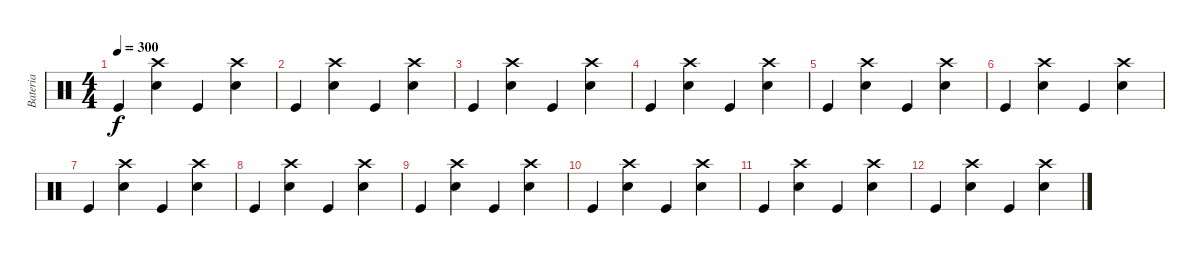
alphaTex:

\track ("Bateria" "Bateria") {instrument percussion}
\staff {score}
\articulation defaults
\ts (4 4)
\tempo 300
\clef neutral
\ks c "Kick (hit)".4{dy f}
("Electric Snare (hit)" "Crash high (hit)").4 "Kick (hit)".4 ("Electric Snare (hit)" "Crash high (hit)").4 |
"Kick (hit)".4 ("Electric Snare (hit)" "Crash high (hit)").4 "Kick (hit)".4 ("Electric Snare (hit)" "Crash high (hit)").4 |
"Kick (hit)".4 ("Electric Snare (hit)" "Crash high (hit)").4 "Kick (hit)".4 ("Electric Snare (hit)" "Crash high (hit)").4 |
"Kick (hit)".4 ("Electric Snare (hit)" "Crash high (hit)").4 "Kick (hit)".4 ("Electric Snare (hit)" "Crash high (hit)").4 |
"Kick (hit)".4 ("Electric Snare (hit)" "Crash high (hit)").4 "Kick (hit)".4 ("Electric Snare (hit)" "Crash high (hit)").4 |
"Kick (hit)".4 ("Electric Snare (hit)" "Crash high (hit)").4 "Kick (hit)".4 ("Electric Snare (hit)" "Crash high (hit)").4 |
"Kick (hit)".4 ("Electric Snare (hit)" "Crash high (hit)").4 "Kick (hit)".4 ("Electric Snare (hit)" "Crash high (hit)").4 |
"Kick (hit)".4 ("Electric Snare (hit)" "Crash high (hit)").4 "Kick (hit)".4 ("Electric Snare (hit)" "Crash high (hit)").4 |
"Kick (hit)".4 ("Electric Snare (hit)" "Crash high (hit)").4 "Kick (hit)".4 ("Electric Snare (hit)" "Crash high (hit)").4 |
"Kick (hit)".4 ("Electric Snare (hit)" "Crash high (hit)").4 "Kick (hit)".4 ("Electric Snare (hit)" "Crash high (hit)").4 |
"Kick (hit)".4 ("Electric Snare (hit)" "Crash high (hit)").4 "Kick (hit)".4 ("Electric Snare (hit)" "Crash high (hit)").4 |
"Kick (hit)".4 ("Electric Snare (hit)" "Crash high (hit)").4 "Kick (hit)".4 ("Electric Snare (hit)" "Crash high (hit)").4
